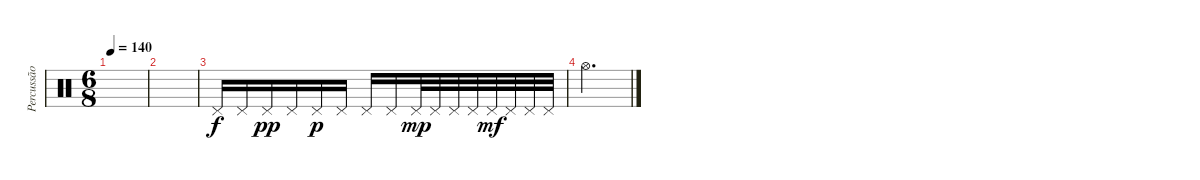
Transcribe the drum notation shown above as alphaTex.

\track ("Percussão" "Percussão") {instrument percussion}
\staff {score}
\articulation defaults
\ts (6 8)
\tempo 140
\clef neutral
\ks c
|
|
"Pedal Hi-Hat (hit)".16 "Pedal Hi-Hat (hit)".16 "Pedal Hi-Hat (hit)".16{dy pp} "Pedal Hi-Hat (hit)".16 "Pedal Hi-Hat (hit)".16{dy p} "Pedal Hi-Hat (hit)".16 "Pedal Hi-Hat (hit)".16 "Pedal Hi-Hat (hit)".16 "Pedal Hi-Hat (hit)".32{dy mp} "Pedal Hi-Hat (hit)".32 "Pedal Hi-Hat (hit)".32 "Pedal Hi-Hat (hit)".32 "Pedal Hi-Hat (hit)".32{dy mf} "Pedal Hi-Hat (hit)".32 "Pedal Hi-Hat (hit)".32 "Pedal Hi-Hat (hit)".32 |
"Hi-Hat (open)".2{d}
